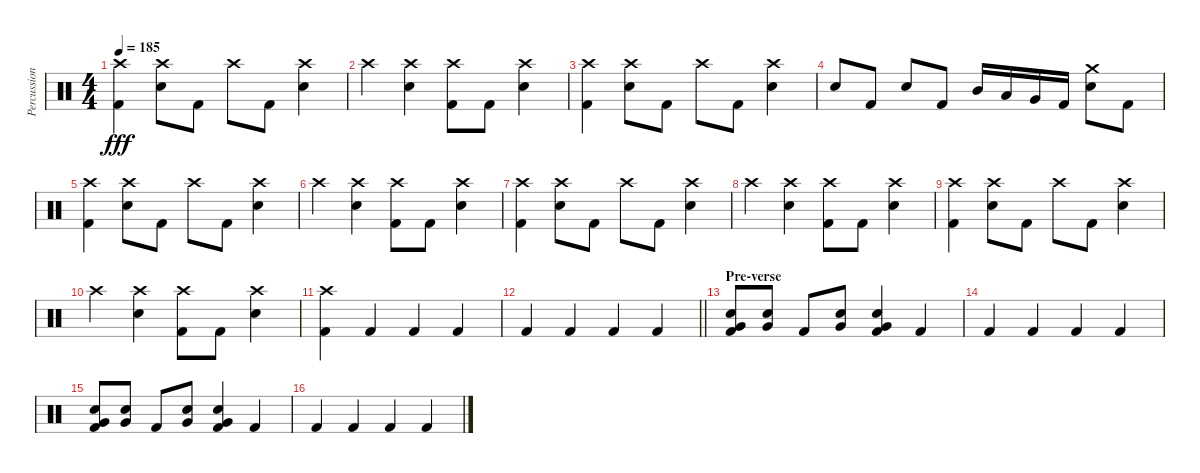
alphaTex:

\track ("Percussion" "Percussion") {instrument percussion}
\staff {score}
\articulation defaults
\ts (4 4)
\tempo 185
\clef neutral
\ks c
("Crash high (hit)" "Kick (hit) 2").4{dy fff} ("Crash high (hit)" "Snare (hit) 2").8 "Kick (hit) 2".8 "Crash high (hit)".8 "Kick (hit) 2".8 ("Crash high (hit)" "Snare (hit) 2").4 |
"Crash high (hit)".4 ("Crash high (hit)" "Snare (hit) 2").4 ("Crash high (hit)" "Kick (hit) 2").8 "Kick (hit) 2".8 ("Crash high (hit)" "Snare (hit) 2").4 |
("Crash high (hit)" "Kick (hit) 2").4 ("Crash high (hit)" "Snare (hit) 2").8 "Kick (hit) 2".8 "Crash high (hit)".8 "Kick (hit) 2".8 ("Crash high (hit)" "Snare (hit) 2").4 |
"Snare (hit) 2".8 "Kick (hit) 2".8 "Snare (hit) 2".8 "Kick (hit) 2".8 "Mid Tom (hit)".16 "Low Tom (hit)".16 "Very Low Tom (hit)".16 "Kick (hit) 2".16 ("Crash medium (hit)" "Snare (hit) 2").8 "Kick (hit) 2".8 |
("Crash high (hit)" "Kick (hit) 2").4 ("Crash high (hit)" "Snare (hit) 2").8 "Kick (hit) 2".8 "Crash high (hit)".8 "Kick (hit) 2".8 ("Crash high (hit)" "Snare (hit) 2").4 |
"Crash high (hit)".4 ("Crash high (hit)" "Snare (hit) 2").4 ("Crash high (hit)" "Kick (hit) 2").8 "Kick (hit) 2".8 ("Crash high (hit)" "Snare (hit) 2").4 |
("Crash high (hit)" "Kick (hit) 2").4 ("Crash high (hit)" "Snare (hit) 2").8 "Kick (hit) 2".8 "Crash high (hit)".8 "Kick (hit) 2".8 ("Crash high (hit)" "Snare (hit) 2").4 |
"Crash high (hit)".4 ("Crash high (hit)" "Snare (hit) 2").4 ("Crash high (hit)" "Kick (hit) 2").8 "Kick (hit) 2".8 ("Crash high (hit)" "Snare (hit) 2").4 |
("Crash high (hit)" "Kick (hit) 2").4 ("Crash high (hit)" "Snare (hit) 2").8 "Kick (hit) 2".8 "Crash high (hit)".8 "Kick (hit) 2".8 ("Crash high (hit)" "Snare (hit) 2").4 |
"Crash high (hit)".4 ("Crash high (hit)" "Snare (hit) 2").4 ("Crash high (hit)" "Kick (hit) 2").8 "Kick (hit) 2".8 ("Crash high (hit)" "Snare (hit) 2").4 |
("Crash high (hit)" "Kick (hit) 2").4 "Kick (hit) 2".4 "Kick (hit) 2".4 "Kick (hit) 2".4 |
\barLineRight lightlight "Kick (hit) 2".4 "Kick (hit) 2".4 "Kick (hit) 2".4 "Kick (hit) 2".4
|
\section ("" "Pre-verse")
("Snare (hit) 2" "Very Low Tom (hit)" "Kick (hit) 2").8 ("Snare (hit) 2" "Very Low Tom (hit)").8 "Kick (hit) 2".8 ("Snare (hit) 2" "Very Low Tom (hit)").8 ("Snare (hit) 2" "Very Low Tom (hit)" "Kick (hit) 2").4 "Kick (hit) 2".4 |
"Kick (hit) 2".4 "Kick (hit) 2".4 "Kick (hit) 2".4 "Kick (hit) 2".4 |
("Snare (hit) 2" "Very Low Tom (hit)" "Kick (hit) 2").8 ("Snare (hit) 2" "Very Low Tom (hit)").8 "Kick (hit) 2".8 ("Snare (hit) 2" "Very Low Tom (hit)").8 ("Snare (hit) 2" "Very Low Tom (hit)" "Kick (hit) 2").4 "Kick (hit) 2".4 |
"Kick (hit) 2".4 "Kick (hit) 2".4 "Kick (hit) 2".4 "Kick (hit) 2".4
